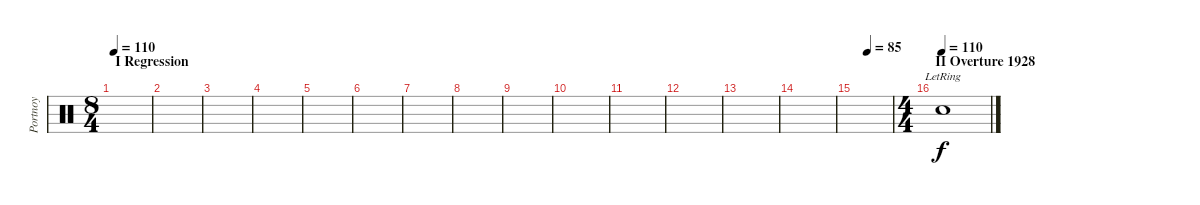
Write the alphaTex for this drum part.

\track ("Portnoy" "Portnoy") {instrument percussion}
\staff {score}
\articulation defaults
\ts (8 4)
\section ("" "I Regression")
\tempo 110
\tempo 100
\tempo 110
\clef neutral
\ks c
|
|
|
|
|
|
|
|
|
|
|
|
|
|
\tempo (85 0.3333333333333333)
|
\ts (4 4)
\section ("" "II Overture 1928")
\tempo (110)
"Electric Snare (hit)"{lr}.1
